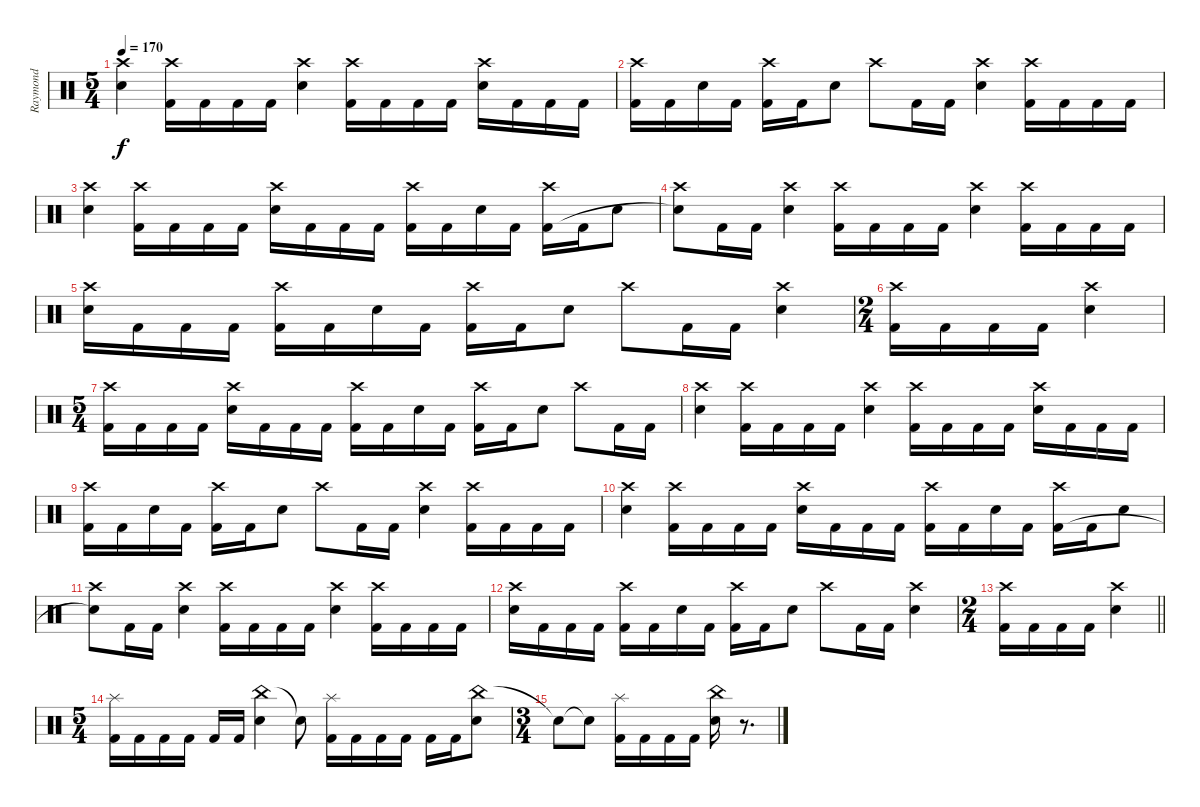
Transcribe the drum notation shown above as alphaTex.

\track ("Raymond" "Raymond") {instrument percussion}
\staff {score}
\articulation defaults
\ts (5 4)
\tempo 170
\clef neutral
\ks c
("Crash high (hit)" "Electric Snare (hit)").4{dy f} ("Crash high (hit)" "Kick (hit) 2").16 "Kick (hit) 2".16 "Kick (hit) 2".16 "Kick (hit) 2".16 ("Crash high (hit)" "Electric Snare (hit)").4 ("Crash high (hit)" "Kick (hit) 2").16 "Kick (hit) 2".16 "Kick (hit) 2".16 "Kick (hit) 2".16 ("Crash high (hit)" "Electric Snare (hit)").16 "Kick (hit) 2".16 "Kick (hit) 2".16 "Kick (hit) 2".16 |
("Crash high (hit)" "Kick (hit) 2").16 "Kick (hit) 2".16 "Electric Snare (hit)".16 "Kick (hit) 2".16 ("Crash high (hit)" "Kick (hit) 2").16 "Kick (hit) 2".16 "Electric Snare (hit)".8 "Crash high (hit)".8 "Kick (hit) 2".16 "Kick (hit) 2".16 ("Crash high (hit)" "Electric Snare (hit)").4 ("Crash high (hit)" "Kick (hit) 2").16 "Kick (hit) 2".16 "Kick (hit) 2".16 "Kick (hit) 2".16 |
("Crash high (hit)" "Electric Snare (hit)").4 ("Crash high (hit)" "Kick (hit) 2").16 "Kick (hit) 2".16 "Kick (hit) 2".16 "Kick (hit) 2".16 ("Crash high (hit)" "Electric Snare (hit)").16 "Kick (hit) 2".16 "Kick (hit) 2".16 "Kick (hit) 2".16 ("Crash high (hit)" "Kick (hit) 2").16 "Kick (hit) 2".16 "Electric Snare (hit)".16 "Kick (hit) 2".16 ("Crash high (hit)" "Kick (hit) 2").16 "Kick (hit) 2".16 "Electric Snare (hit)".8 |
("Crash high (hit)" "Snare (hit)"{t}).8 "Kick (hit) 2".16 "Kick (hit) 2".16 ("Crash high (hit)" "Electric Snare (hit)").4 ("Crash high (hit)" "Kick (hit) 2").16 "Kick (hit) 2".16 "Kick (hit) 2".16 "Kick (hit) 2".16 ("Crash high (hit)" "Electric Snare (hit)").4 ("Crash high (hit)" "Kick (hit) 2").16 "Kick (hit) 2".16 "Kick (hit) 2".16 "Kick (hit) 2".16 |
("Crash high (hit)" "Electric Snare (hit)").16 "Kick (hit) 2".16 "Kick (hit) 2".16 "Kick (hit) 2".16 ("Crash high (hit)" "Kick (hit) 2").16 "Kick (hit) 2".16 "Electric Snare (hit)".16 "Kick (hit) 2".16 ("Crash high (hit)" "Kick (hit) 2").16 "Kick (hit) 2".16 "Electric Snare (hit)".8 "Crash high (hit)".8 "Kick (hit) 2".16 "Kick (hit) 2".16 ("Crash high (hit)" "Electric Snare (hit)").4 |
\ts (2 4)
("Crash high (hit)" "Kick (hit) 2").16 "Kick (hit) 2".16 "Kick (hit) 2".16 "Kick (hit) 2".16 ("Crash high (hit)" "Electric Snare (hit)").4 |
\ts (5 4)
("Crash high (hit)" "Kick (hit) 2").16 "Kick (hit) 2".16 "Kick (hit) 2".16 "Kick (hit) 2".16 ("Crash high (hit)" "Electric Snare (hit)").16 "Kick (hit) 2".16 "Kick (hit) 2".16 "Kick (hit) 2".16 ("Crash high (hit)" "Kick (hit) 2").16 "Kick (hit) 2".16 "Electric Snare (hit)".16 "Kick (hit) 2".16 ("Crash high (hit)" "Kick (hit) 2").16 "Kick (hit) 2".16 "Electric Snare (hit)".8 "Crash high (hit)".8 "Kick (hit) 2".16 "Kick (hit) 2".16 |
("Crash high (hit)" "Electric Snare (hit)").4 ("Crash high (hit)" "Kick (hit) 2").16 "Kick (hit) 2".16 "Kick (hit) 2".16 "Kick (hit) 2".16 ("Crash high (hit)" "Electric Snare (hit)").4 ("Crash high (hit)" "Kick (hit) 2").16 "Kick (hit) 2".16 "Kick (hit) 2".16 "Kick (hit) 2".16 ("Crash high (hit)" "Electric Snare (hit)").16 "Kick (hit) 2".16 "Kick (hit) 2".16 "Kick (hit) 2".16 |
("Crash high (hit)" "Kick (hit) 2").16 "Kick (hit) 2".16 "Electric Snare (hit)".16 "Kick (hit) 2".16 ("Crash high (hit)" "Kick (hit) 2").16 "Kick (hit) 2".16 "Electric Snare (hit)".8 "Crash high (hit)".8 "Kick (hit) 2".16 "Kick (hit) 2".16 ("Crash high (hit)" "Electric Snare (hit)").4 ("Crash high (hit)" "Kick (hit) 2").16 "Kick (hit) 2".16 "Kick (hit) 2".16 "Kick (hit) 2".16 |
("Crash high (hit)" "Electric Snare (hit)").4 ("Crash high (hit)" "Kick (hit) 2").16 "Kick (hit) 2".16 "Kick (hit) 2".16 "Kick (hit) 2".16 ("Crash high (hit)" "Electric Snare (hit)").16 "Kick (hit) 2".16 "Kick (hit) 2".16 "Kick (hit) 2".16 ("Crash high (hit)" "Kick (hit) 2").16 "Kick (hit) 2".16 "Electric Snare (hit)".16 "Kick (hit) 2".16 ("Crash high (hit)" "Kick (hit) 2").16 "Kick (hit) 2".16 "Electric Snare (hit)".8 |
("Crash high (hit)" "Snare (hit)"{t}).8 "Kick (hit) 2".16 "Kick (hit) 2".16 ("Crash high (hit)" "Electric Snare (hit)").4 ("Crash high (hit)" "Kick (hit) 2").16 "Kick (hit) 2".16 "Kick (hit) 2".16 "Kick (hit) 2".16 ("Crash high (hit)" "Electric Snare (hit)").4 ("Crash high (hit)" "Kick (hit) 2").16 "Kick (hit) 2".16 "Kick (hit) 2".16 "Kick (hit) 2".16 |
("Crash high (hit)" "Electric Snare (hit)").16 "Kick (hit) 2".16 "Kick (hit) 2".16 "Kick (hit) 2".16 ("Crash high (hit)" "Kick (hit) 2").16 "Kick (hit) 2".16 "Electric Snare (hit)".16 "Kick (hit) 2".16 ("Crash high (hit)" "Kick (hit) 2").16 "Kick (hit) 2".16 "Electric Snare (hit)".8 "Crash high (hit)".8 "Kick (hit) 2".16 "Kick (hit) 2".16 ("Crash high (hit)" "Electric Snare (hit)").4 |
\ts (2 4)
\barLineRight lightlight
("Crash high (hit)" "Kick (hit) 2").16 "Kick (hit) 2".16 "Kick (hit) 2".16 "Kick (hit) 2".16 ("Crash high (hit)" "Electric Snare (hit)").4 |
\ts (5 4)
\section ("" "")
("Splash (hit)" "Kick (hit) 2").16 "Kick (hit) 2".16 "Kick (hit) 2".16 "Kick (hit) 2".16 "Kick (hit) 2".16 "Kick (hit) 2".16 ("China (hit)" "Electric Snare (hit)").4 "Snare (hit)"{t}.8 ("Splash (hit)" "Kick (hit) 2").16 "Kick (hit) 2".16 "Kick (hit) 2".16 "Kick (hit) 2".16 "Kick (hit) 2".16 "Kick (hit) 2".16 ("China (hit)" "Electric Snare (hit)").8 |
\ts (3 4)
"Snare (hit)"{t}.8 "Snare (hit)"{t}.8 ("Splash (hit)" "Kick (hit) 2").16 "Kick (hit) 2".16 "Kick (hit) 2".16 "Kick (hit) 2".16 ("China (hit)" "Electric Snare (hit)").16 r.8{d}
